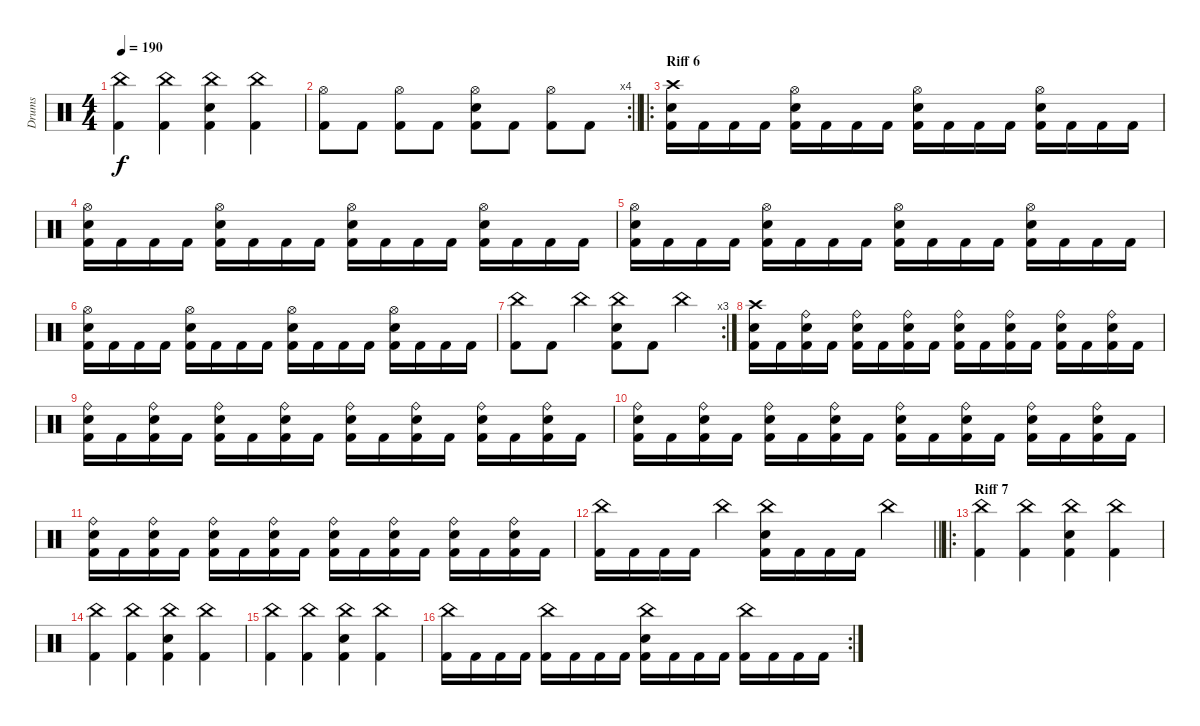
\track ("Drums" "Drums") {instrument percussion}
\staff {score}
\articulation defaults
\ts (4 4)
\tempo 190
\clef neutral
\ks c
("China (hit)" "Kick (hit) 2").4{dy f} ("China (hit)" "Kick (hit) 2").4 ("China (hit)" "Electric Snare (hit)" "Kick (hit) 2").4 ("China (hit)" "Kick (hit) 2").4 |
\rc 4
\barLineRight lightlight
("Hi-Hat (open)" "Kick (hit) 2").8 "Kick (hit) 2".8 ("Hi-Hat (open)" "Kick (hit) 2").8 "Kick (hit) 2".8 ("Hi-Hat (open)" "Electric Snare (hit)" "Kick (hit) 2").8 "Kick (hit) 2".8 ("Hi-Hat (open)" "Kick (hit) 2").8 "Kick (hit) 2".8 |
\ro
\section ("" "Riff 6")
("Crash high (hit)" "Electric Snare (hit)" "Kick (hit) 2").16 "Kick (hit) 2".16 "Kick (hit) 2".16 "Kick (hit) 2".16 ("Hi-Hat (open)" "Electric Snare (hit)" "Kick (hit) 2").16 "Kick (hit) 2".16 "Kick (hit) 2".16 "Kick (hit) 2".16 ("Hi-Hat (open)" "Electric Snare (hit)" "Kick (hit) 2").16 "Kick (hit) 2".16 "Kick (hit) 2".16 "Kick (hit) 2".16 ("Hi-Hat (open)" "Electric Snare (hit)" "Kick (hit) 2").16 "Kick (hit) 2".16 "Kick (hit) 2".16 "Kick (hit) 2".16 |
("Hi-Hat (open)" "Electric Snare (hit)" "Kick (hit) 2").16 "Kick (hit) 2".16 "Kick (hit) 2".16 "Kick (hit) 2".16 ("Hi-Hat (open)" "Electric Snare (hit)" "Kick (hit) 2").16 "Kick (hit) 2".16 "Kick (hit) 2".16 "Kick (hit) 2".16 ("Hi-Hat (open)" "Electric Snare (hit)" "Kick (hit) 2").16 "Kick (hit) 2".16 "Kick (hit) 2".16 "Kick (hit) 2".16 ("Hi-Hat (open)" "Electric Snare (hit)" "Kick (hit) 2").16 "Kick (hit) 2".16 "Kick (hit) 2".16 "Kick (hit) 2".16 |
("Hi-Hat (open)" "Electric Snare (hit)" "Kick (hit) 2").16 "Kick (hit) 2".16 "Kick (hit) 2".16 "Kick (hit) 2".16 ("Hi-Hat (open)" "Electric Snare (hit)" "Kick (hit) 2").16 "Kick (hit) 2".16 "Kick (hit) 2".16 "Kick (hit) 2".16 ("Hi-Hat (open)" "Electric Snare (hit)" "Kick (hit) 2").16 "Kick (hit) 2".16 "Kick (hit) 2".16 "Kick (hit) 2".16 ("Hi-Hat (open)" "Electric Snare (hit)" "Kick (hit) 2").16 "Kick (hit) 2".16 "Kick (hit) 2".16 "Kick (hit) 2".16 |
("Hi-Hat (open)" "Electric Snare (hit)" "Kick (hit) 2").16 "Kick (hit) 2".16 "Kick (hit) 2".16 "Kick (hit) 2".16 ("Hi-Hat (open)" "Electric Snare (hit)" "Kick (hit) 2").16 "Kick (hit) 2".16 "Kick (hit) 2".16 "Kick (hit) 2".16 ("Hi-Hat (open)" "Electric Snare (hit)" "Kick (hit) 2").16 "Kick (hit) 2".16 "Kick (hit) 2".16 "Kick (hit) 2".16 ("Hi-Hat (open)" "Electric Snare (hit)" "Kick (hit) 2").16 "Kick (hit) 2".16 "Kick (hit) 2".16 "Kick (hit) 2".16 |
\rc 3
("China (hit)" "Kick (hit) 2").8 "Kick (hit) 2".8 "China (hit)".4 ("China (hit)" "Electric Snare (hit)" "Kick (hit) 2").8 "Kick (hit) 2".8 "China (hit)".4 |
("Crash high (hit)" "Electric Snare (hit)" "Kick (hit) 2").16 "Kick (hit) 2".16 ("Ride (bell)" "Electric Snare (hit)" "Kick (hit) 2").16 "Kick (hit) 2".16 ("Ride (bell)" "Electric Snare (hit)" "Kick (hit) 2").16 "Kick (hit) 2".16 ("Ride (bell)" "Electric Snare (hit)" "Kick (hit) 2").16 "Kick (hit) 2".16 ("Ride (bell)" "Electric Snare (hit)" "Kick (hit) 2").16 "Kick (hit) 2".16 ("Ride (bell)" "Electric Snare (hit)" "Kick (hit) 2").16 "Kick (hit) 2".16 ("Ride (bell)" "Electric Snare (hit)" "Kick (hit) 2").16 "Kick (hit) 2".16 ("Ride (bell)" "Electric Snare (hit)" "Kick (hit) 2").16 "Kick (hit) 2".16 |
("Ride (bell)" "Electric Snare (hit)" "Kick (hit) 2").16 "Kick (hit) 2".16 ("Ride (bell)" "Electric Snare (hit)" "Kick (hit) 2").16 "Kick (hit) 2".16 ("Ride (bell)" "Electric Snare (hit)" "Kick (hit) 2").16 "Kick (hit) 2".16 ("Ride (bell)" "Electric Snare (hit)" "Kick (hit) 2").16 "Kick (hit) 2".16 ("Ride (bell)" "Electric Snare (hit)" "Kick (hit) 2").16 "Kick (hit) 2".16 ("Ride (bell)" "Electric Snare (hit)" "Kick (hit) 2").16 "Kick (hit) 2".16 ("Ride (bell)" "Electric Snare (hit)" "Kick (hit) 2").16 "Kick (hit) 2".16 ("Ride (bell)" "Electric Snare (hit)" "Kick (hit) 2").16 "Kick (hit) 2".16 |
("Ride (bell)" "Electric Snare (hit)" "Kick (hit) 2").16 "Kick (hit) 2".16 ("Ride (bell)" "Electric Snare (hit)" "Kick (hit) 2").16 "Kick (hit) 2".16 ("Ride (bell)" "Electric Snare (hit)" "Kick (hit) 2").16 "Kick (hit) 2".16 ("Ride (bell)" "Electric Snare (hit)" "Kick (hit) 2").16 "Kick (hit) 2".16 ("Ride (bell)" "Electric Snare (hit)" "Kick (hit) 2").16 "Kick (hit) 2".16 ("Ride (bell)" "Electric Snare (hit)" "Kick (hit) 2").16 "Kick (hit) 2".16 ("Ride (bell)" "Electric Snare (hit)" "Kick (hit) 2").16 "Kick (hit) 2".16 ("Ride (bell)" "Electric Snare (hit)" "Kick (hit) 2").16 "Kick (hit) 2".16 |
("Ride (bell)" "Electric Snare (hit)" "Kick (hit) 2").16 "Kick (hit) 2".16 ("Ride (bell)" "Electric Snare (hit)" "Kick (hit) 2").16 "Kick (hit) 2".16 ("Ride (bell)" "Electric Snare (hit)" "Kick (hit) 2").16 "Kick (hit) 2".16 ("Ride (bell)" "Electric Snare (hit)" "Kick (hit) 2").16 "Kick (hit) 2".16 ("Ride (bell)" "Electric Snare (hit)" "Kick (hit) 2").16 "Kick (hit) 2".16 ("Ride (bell)" "Electric Snare (hit)" "Kick (hit) 2").16 "Kick (hit) 2".16 ("Ride (bell)" "Electric Snare (hit)" "Kick (hit) 2").16 "Kick (hit) 2".16 ("Ride (bell)" "Electric Snare (hit)" "Kick (hit) 2").16 "Kick (hit) 2".16 |
\barLineRight lightlight
("China (hit)" "Kick (hit) 2").16 "Kick (hit) 2".16 "Kick (hit) 2".16 "Kick (hit) 2".16 "China (hit)".4 ("China (hit)" "Electric Snare (hit)" "Kick (hit) 2").16 "Kick (hit) 2".16 "Kick (hit) 2".16 "Kick (hit) 2".16 "China (hit)".4 |
\ro
\section ("" "Riff 7")
("China (hit)" "Kick (hit) 2").4 ("China (hit)" "Kick (hit) 2").4 ("China (hit)" "Electric Snare (hit)" "Kick (hit) 2").4 ("China (hit)" "Kick (hit) 2").4 |
("China (hit)" "Kick (hit) 2").4 ("China (hit)" "Kick (hit) 2").4 ("China (hit)" "Electric Snare (hit)" "Kick (hit) 2").4 ("China (hit)" "Kick (hit) 2").4 |
("China (hit)" "Kick (hit) 2").4 ("China (hit)" "Kick (hit) 2").4 ("China (hit)" "Electric Snare (hit)" "Kick (hit) 2").4 ("China (hit)" "Kick (hit) 2").4 |
\rc 2
("China (hit)" "Kick (hit) 2").16 "Kick (hit) 2".16 "Kick (hit) 2".16 "Kick (hit) 2".16 ("China (hit)" "Kick (hit) 2").16 "Kick (hit) 2".16 "Kick (hit) 2".16 "Kick (hit) 2".16 ("China (hit)" "Electric Snare (hit)" "Kick (hit) 2").16 "Kick (hit) 2".16 "Kick (hit) 2".16 "Kick (hit) 2".16 ("China (hit)" "Kick (hit) 2").16 "Kick (hit) 2".16 "Kick (hit) 2".16 "Kick (hit) 2".16
